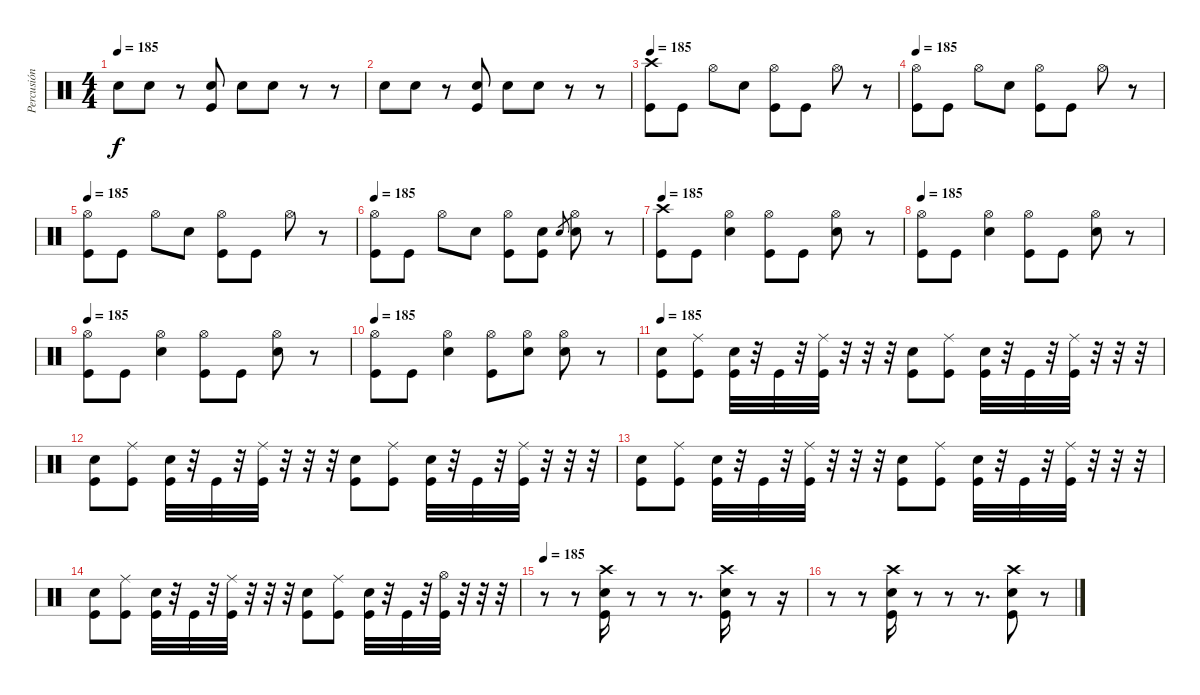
\track ("Percusión" "Percusión") {instrument percussion}
\staff {score}
\articulation defaults
\ts (4 4)
\tempo 185
\clef neutral
\ks c "Electric Snare (hit)".8{dy f} "Electric Snare (hit)".8
r.8 ("Electric Snare (hit)" "Kick (hit)").8 "Electric Snare (hit)".8 "Electric Snare (hit)".8 r.8 r.8 |
"Electric Snare (hit)".8 "Electric Snare (hit)".8 r.8 ("Electric Snare (hit)" "Kick (hit)").8 "Electric Snare (hit)".8 "Electric Snare (hit)".8 r.8 r.8 |
\tempo 185
("Crash high (hit)" "Kick (hit)").8 "Kick (hit)".8 "Hi-Hat (open)".8 "Electric Snare (hit)".8 ("Hi-Hat (open)" "Kick (hit)").8 "Kick (hit)".8 "Hi-Hat (open)".8 r.8 |
\tempo 185
("Hi-Hat (open)" "Kick (hit)").8 "Kick (hit)".8 "Hi-Hat (open)".8 "Electric Snare (hit)".8 ("Hi-Hat (open)" "Kick (hit)").8 "Kick (hit)".8 "Hi-Hat (open)".8 r.8 |
\tempo 185
("Hi-Hat (open)" "Kick (hit)").8 "Kick (hit)".8 "Hi-Hat (open)".8 "Electric Snare (hit)".8 ("Hi-Hat (open)" "Kick (hit)").8 "Kick (hit)".8 "Hi-Hat (open)".8 r.8 |
\tempo 185
("Hi-Hat (open)" "Kick (hit)").8 "Kick (hit)".8 "Hi-Hat (open)".8 "Electric Snare (hit)".8 ("Hi-Hat (open)" "Kick (hit)").8 ("Electric Snare (hit)" "Kick (hit)").8 "Electric Snare (hit)".8{gr} ("Hi-Hat (open)" "Electric Snare (hit)").8 r.8 |
\tempo 185
("Crash high (hit)" "Kick (hit)").8 "Kick (hit)".8 ("Hi-Hat (open)" "Electric Snare (hit)").4 ("Hi-Hat (open)" "Kick (hit)").8 "Kick (hit)".8 ("Hi-Hat (open)" "Electric Snare (hit)").8 r.8 |
\tempo 185
("Hi-Hat (open)" "Kick (hit)").8 "Kick (hit)".8 ("Hi-Hat (open)" "Electric Snare (hit)").4 ("Hi-Hat (open)" "Kick (hit)").8 "Kick (hit)".8 ("Hi-Hat (open)" "Electric Snare (hit)").8 r.8 |
\tempo 185
("Hi-Hat (open)" "Kick (hit)").8 "Kick (hit)".8 ("Hi-Hat (open)" "Electric Snare (hit)").4 ("Hi-Hat (open)" "Kick (hit)").8 "Kick (hit)".8 ("Hi-Hat (open)" "Electric Snare (hit)").8 r.8 |
\tempo 185
("Hi-Hat (open)" "Kick (hit)").8 "Kick (hit)".8 ("Hi-Hat (open)" "Electric Snare (hit)").4 ("Hi-Hat (open)" "Kick (hit)").8 ("Hi-Hat (open)" "Electric Snare (hit)").8 ("Hi-Hat (open)" "Electric Snare (hit)").8 r.8 |
\tempo 185
("Electric Snare (hit)" "Kick (hit)").8 ("Ride (middle)" "Kick (hit)").8 ("Electric Snare (hit)" "Kick (hit)").32 r.32 "Kick (hit)".32 r.32 ("Ride (middle)" "Kick (hit)").32 r.32 r.32 r.32 ("Electric Snare (hit)" "Kick (hit)").8 ("Ride (middle)" "Kick (hit)").8 ("Electric Snare (hit)" "Kick (hit)").32 r.32 "Kick (hit)".32 r.32 ("Ride (middle)" "Kick (hit)").32 r.32 r.32 r.32 |
("Electric Snare (hit)" "Kick (hit)").8 ("Ride (middle)" "Kick (hit)").8 ("Electric Snare (hit)" "Kick (hit)").32 r.32 "Kick (hit)".32 r.32 ("Ride (middle)" "Kick (hit)").32 r.32 r.32 r.32 ("Electric Snare (hit)" "Kick (hit)").8 ("Ride (middle)" "Kick (hit)").8 ("Electric Snare (hit)" "Kick (hit)").32 r.32 "Kick (hit)".32 r.32 ("Ride (middle)" "Kick (hit)").32 r.32 r.32 r.32 |
("Electric Snare (hit)" "Kick (hit)").8 ("Ride (middle)" "Kick (hit)").8 ("Electric Snare (hit)" "Kick (hit)").32 r.32 "Kick (hit)".32 r.32 ("Ride (middle)" "Kick (hit)").32 r.32 r.32 r.32 ("Electric Snare (hit)" "Kick (hit)").8 ("Ride (middle)" "Kick (hit)").8 ("Electric Snare (hit)" "Kick (hit)").32 r.32 "Kick (hit)".32 r.32 ("Ride (middle)" "Kick (hit)").32 r.32 r.32 r.32 |
("Electric Snare (hit)" "Kick (hit)").8 ("Ride (middle)" "Kick (hit)").8 ("Electric Snare (hit)" "Kick (hit)").32 r.32 "Kick (hit)".32 r.32 ("Ride (middle)" "Kick (hit)").32 r.32 r.32 r.32 ("Electric Snare (hit)" "Kick (hit)").8 ("Ride (middle)" "Kick (hit)").8 ("Electric Snare (hit)" "Kick (hit)").32 r.32 "Kick (hit)".32 r.32 ("Hi-Hat (open)" "Kick (hit)").32 r.32 r.32 r.32 |
\tempo 185
r.8 r.8 ("Crash high (hit)" "Electric Snare (hit)" "Kick (hit)").16 r.8 r.8 r.8{d} ("Crash high (hit)" "Electric Snare (hit)" "Kick (hit)").16 r.8 r.16 |
r.8 r.8 ("Crash high (hit)" "Electric Snare (hit)" "Kick (hit)").16 r.8 r.8 r.8{d} ("Crash high (hit)" "Electric Snare (hit)" "Kick (hit)").8 r.8
